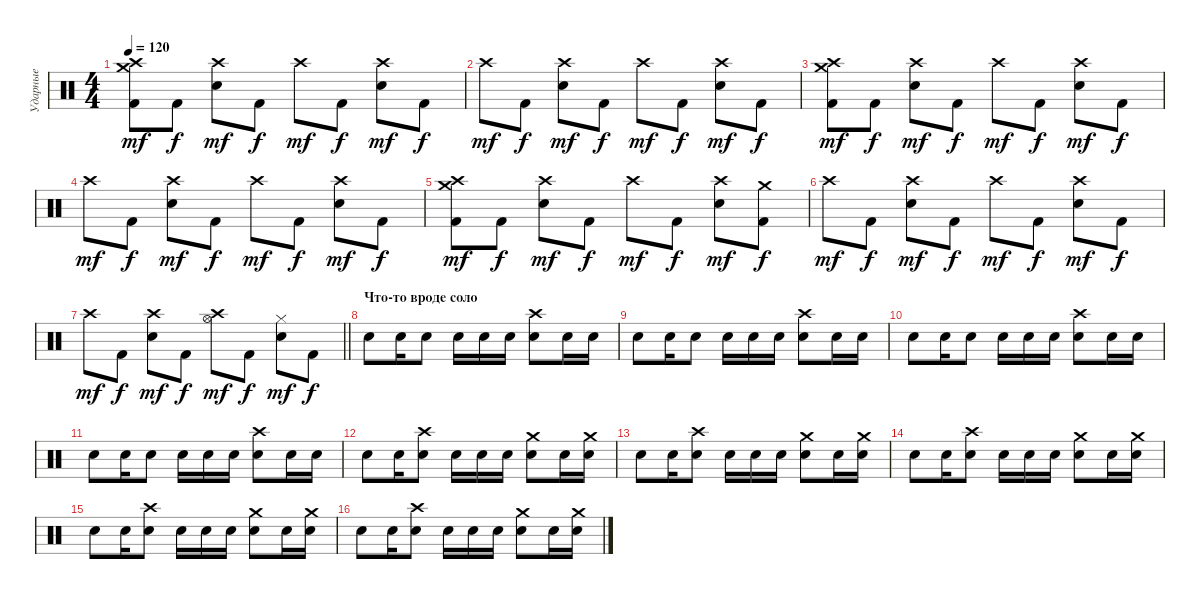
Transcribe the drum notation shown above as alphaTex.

\track ("Ударные" "Ударные") {instrument percussion}
\staff {score}
\articulation defaults
\ts (4 4)
\tempo 120
\clef neutral
\ks c
("Crash medium (hit)" "Crash high (hit)" "Kick (hit) 2").8{dy mf} "Kick (hit) 2".8{dy f} ("Crash high (hit)" "Electric Snare (hit)").8{dy mf} "Kick (hit) 2".8{dy f} "Crash high (hit)".8{dy mf} "Kick (hit) 2".8{dy f} ("Crash high (hit)" "Electric Snare (hit)").8{dy mf} "Kick (hit) 2".8{dy f} |
"Crash high (hit)".8{dy mf} "Kick (hit) 2".8{dy f} ("Crash high (hit)" "Electric Snare (hit)").8{dy mf} "Kick (hit) 2".8{dy f} "Crash high (hit)".8{dy mf} "Kick (hit) 2".8{dy f} ("Crash high (hit)" "Electric Snare (hit)").8{dy mf} "Kick (hit) 2".8{dy f} |
("Crash medium (hit)" "Crash high (hit)" "Kick (hit) 2").8{dy mf} "Kick (hit) 2".8{dy f} ("Crash high (hit)" "Electric Snare (hit)").8{dy mf} "Kick (hit) 2".8{dy f} "Crash high (hit)".8{dy mf} "Kick (hit) 2".8{dy f} ("Crash high (hit)" "Electric Snare (hit)").8{dy mf} "Kick (hit) 2".8{dy f} |
"Crash high (hit)".8{dy mf} "Kick (hit) 2".8{dy f} ("Crash high (hit)" "Electric Snare (hit)").8{dy mf} "Kick (hit) 2".8{dy f} "Crash high (hit)".8{dy mf} "Kick (hit) 2".8{dy f} ("Crash high (hit)" "Electric Snare (hit)").8{dy mf} "Kick (hit) 2".8{dy f} |
("Crash medium (hit)" "Crash high (hit)" "Kick (hit) 2").8{dy mf} "Kick (hit) 2".8{dy f} ("Crash high (hit)" "Electric Snare (hit)").8{dy mf} "Kick (hit) 2".8{dy f} "Crash high (hit)".8{dy mf} "Kick (hit) 2".8{dy f} ("Crash high (hit)" "Electric Snare (hit)").8{dy mf} ("Crash medium (hit)" "Kick (hit) 2").8{dy f} |
"Crash high (hit)".8{dy mf} "Kick (hit) 2".8{dy f} ("Crash high (hit)" "Electric Snare (hit)").8{dy mf} "Kick (hit) 2".8{dy f} "Crash high (hit)".8{dy mf} "Kick (hit) 2".8{dy f} ("Crash high (hit)" "Electric Snare (hit)").8{dy mf} "Kick (hit) 2".8{dy f} |
\barLineRight lightlight "Crash high (hit)".8{dy mf} "Kick (hit) 2".8{dy f}
("Crash high (hit)" "Electric Snare (hit)").8{dy mf} "Kick (hit) 2".8{dy f} ("Crash high (hit)" "Hi-Hat (open)").8{dy mf} "Kick (hit) 2".8{dy f} ("Hi-Hat (closed)" "Electric Snare (hit)").8{dy mf} "Kick (hit) 2".8{dy f} |
\section ("" "Что-то вроде соло")
"Electric Snare (hit)".8 "Electric Snare (hit)".16 "Electric Snare (hit)".8 "Snare (hit) 2".16 "Snare (hit) 2".16 "Electric Snare (hit)".16 ("Crash high (hit)" "Electric Snare (hit)").8 "Snare (hit) 2".16 "Electric Snare (hit)".16 |
"Electric Snare (hit)".8 "Electric Snare (hit)".16 "Electric Snare (hit)".8 "Snare (hit) 2".16 "Snare (hit) 2".16 "Electric Snare (hit)".16 ("Crash high (hit)" "Electric Snare (hit)").8 "Snare (hit) 2".16 "Electric Snare (hit)".16 |
"Electric Snare (hit)".8 "Electric Snare (hit)".16 "Electric Snare (hit)".8 "Snare (hit) 2".16 "Snare (hit) 2".16 "Electric Snare (hit)".16 ("Crash high (hit)" "Electric Snare (hit)").8 "Snare (hit) 2".16 "Electric Snare (hit)".16 |
"Electric Snare (hit)".8 "Electric Snare (hit)".16 "Electric Snare (hit)".8 "Snare (hit) 2".16 "Snare (hit) 2".16 "Electric Snare (hit)".16 ("Crash high (hit)" "Electric Snare (hit)").8 "Snare (hit) 2".16 "Electric Snare (hit)".16 |
"Electric Snare (hit)".8 "Electric Snare (hit)".16 ("Crash high (hit)" "Electric Snare (hit)").8 "Snare (hit) 2".16 "Snare (hit) 2".16 "Electric Snare (hit)".16 ("Crash medium (hit)" "Electric Snare (hit)").8 "Snare (hit) 2".16 ("Crash medium (hit)" "Electric Snare (hit)").16 |
"Electric Snare (hit)".8 "Electric Snare (hit)".16 ("Crash high (hit)" "Electric Snare (hit)").8 "Snare (hit) 2".16 "Snare (hit) 2".16 "Electric Snare (hit)".16 ("Crash medium (hit)" "Electric Snare (hit)").8 "Snare (hit) 2".16 ("Crash medium (hit)" "Electric Snare (hit)").16 |
"Electric Snare (hit)".8 "Electric Snare (hit)".16 ("Crash high (hit)" "Electric Snare (hit)").8 "Snare (hit) 2".16 "Snare (hit) 2".16 "Electric Snare (hit)".16 ("Crash medium (hit)" "Electric Snare (hit)").8 "Snare (hit) 2".16 ("Crash medium (hit)" "Electric Snare (hit)").16 |
"Electric Snare (hit)".8 "Electric Snare (hit)".16 ("Crash high (hit)" "Electric Snare (hit)").8 "Snare (hit) 2".16 "Snare (hit) 2".16 "Electric Snare (hit)".16 ("Crash medium (hit)" "Electric Snare (hit)").8 "Snare (hit) 2".16 ("Crash medium (hit)" "Electric Snare (hit)").16 |
"Electric Snare (hit)".8 "Electric Snare (hit)".16 ("Crash high (hit)" "Electric Snare (hit)").8 "Snare (hit) 2".16 "Snare (hit) 2".16 "Electric Snare (hit)".16 ("Crash medium (hit)" "Electric Snare (hit)").8 "Snare (hit) 2".16 ("Crash medium (hit)" "Electric Snare (hit)").16
